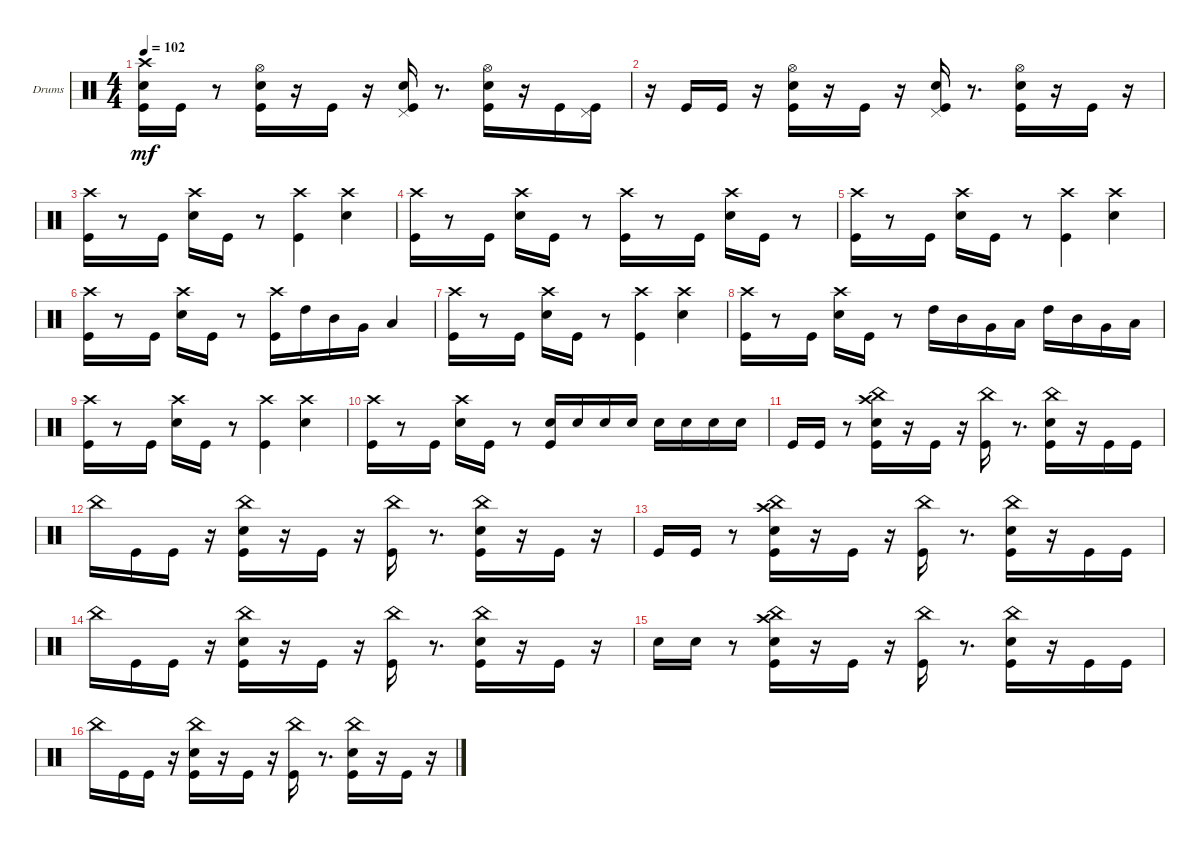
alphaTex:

\defaultSystemsLayout 4
\bracketExtendMode groupsimilarinstruments
\firstSystemTrackNameOrientation horizontal
\otherSystemsTrackNameOrientation horizontal
\track ("Drumkit" "Drums") {instrument percussion}
\staff {score}
\articulation defaults
\ts (4 4)
\tempo 102
\clef neutral
\scale
0.333333
\ks c
("Crash high (hit)" "Snare (hit) 2" "Kick (hit)").16{dy mf} "Kick (hit)".16 r.8 ("Hi-Hat (open)" "Snare (hit) 2" "Kick (hit)").16 r.16 "Kick (hit)".16 r.16 ("Pedal Hi-Hat (hit)" "Snare (hit) 2" "Kick (hit)").16 r.8{d} ("Hi-Hat (open)" "Snare (hit) 2" "Kick (hit)").16 r.16 "Kick (hit)".16 ("Pedal Hi-Hat (hit)" "Kick (hit)").16 |
\scale
0.333333 r.16 "Kick (hit)".16 "Kick (hit)".16 r.16 ("Hi-Hat (open)" "Snare (hit) 2" "Kick (hit)").16 r.16 "Kick (hit)".16 r.16 ("Pedal Hi-Hat (hit)" "Snare (hit) 2" "Kick (hit)").16 r.8{d} ("Hi-Hat (open)" "Snare (hit) 2" "Kick (hit)").16 r.16 "Kick (hit)".16 r.16 |
\scale
0.333333 ("Crash high (hit)" "Kick (hit)").16 r.8 "Kick (hit)".16 ("Crash high (hit)" "Snare (hit) 2").16 "Kick (hit)".16 r.8 ("Crash high (hit)" "Kick (hit)").4 ("Crash high (hit)" "Snare (hit) 2").4 |
\scale
0.333333 ("Crash high (hit)" "Kick (hit)").16 r.8 "Kick (hit)".16 ("Crash high (hit)" "Snare (hit) 2").16 "Kick (hit)".16 r.8 ("Crash high (hit)" "Kick (hit)").16 r.8 "Kick (hit)".16 ("Crash high (hit)" "Snare (hit) 2").16 "Kick (hit)".16 r.8 |
\scale
0.333333 ("Crash high (hit)" "Kick (hit)").16 r.8 "Kick (hit)".16 ("Crash high (hit)" "Snare (hit) 2").16 "Kick (hit)".16 r.8 ("Crash high (hit)" "Kick (hit)").4 ("Crash high (hit)" "Snare (hit) 2").4 |
\scale
0.333333 ("Crash high (hit)" "Kick (hit)").16 r.8 "Kick (hit)".16 ("Crash high (hit)" "Snare (hit) 2").16 "Kick (hit)".16 r.8 ("Crash high (hit)" "Kick (hit)").16 "High Tom (hit)".16 "Mid Tom (hit)".16 "Very Low Tom (hit)".16 "Low Tom (hit)".4 |
\scale
0.333333 ("Crash high (hit)" "Kick (hit)").16 r.8 "Kick (hit)".16 ("Crash high (hit)" "Snare (hit) 2").16 "Kick (hit)".16 r.8 ("Crash high (hit)" "Kick (hit)").4 ("Crash high (hit)" "Snare (hit) 2").4 |
\scale
0.333333 ("Crash high (hit)" "Kick (hit)").16 r.8 "Kick (hit)".16 ("Crash high (hit)" "Snare (hit) 2").16 "Kick (hit)".16 r.8 "High Tom (hit)".16 "Mid Tom (hit)".16 "Very Low Tom (hit)".16 "Low Tom (hit)".16 "High Tom (hit)".16 "Mid Tom (hit)".16 "Very Low Tom (hit)".16 "Low Tom (hit)".16 |
\scale
0.333333 ("Crash high (hit)" "Kick (hit)").16 r.8 "Kick (hit)".16 ("Crash high (hit)" "Snare (hit) 2").16 "Kick (hit)".16 r.8 ("Crash high (hit)" "Kick (hit)").4 ("Crash high (hit)" "Snare (hit) 2").4 |
\scale
0.333333 ("Crash high (hit)" "Kick (hit)").16 r.8 "Kick (hit)".16 ("Crash high (hit)" "Snare (hit) 2").16 "Kick (hit)".16 r.8 ("Snare (hit) 2" "Kick (hit)").16 "Snare (hit) 2".16 "Snare (hit) 2".16 "Snare (hit) 2".16 "Snare (hit) 2".16 "Snare (hit) 2".16 "Snare (hit) 2".16 "Snare (hit) 2".16 |
\scale
0.333333 "Kick (hit)".16 "Kick (hit)".16 r.8 ("China (hit)" "Crash high (hit)" "Snare (hit) 2" "Kick (hit)").16 r.16 "Kick (hit)".16 r.16 ("China (hit)" "Kick (hit)").16 r.8{d} ("China (hit)" "Snare (hit) 2" "Kick (hit)").16 r.16 "Kick (hit)".16 "Kick (hit)".16 |
\scale
0.333333 "China (hit)".16 "Kick (hit)".16 "Kick (hit)".16 r.16 ("China (hit)" "Snare (hit) 2" "Kick (hit)").16 r.16 "Kick (hit)".16 r.16 ("China (hit)" "Kick (hit)").16 r.8{d} ("China (hit)" "Snare (hit) 2" "Kick (hit)").16 r.16 "Kick (hit)".16 r.16 |
\scale
0.333333 "Kick (hit)".16 "Kick (hit)".16 r.8 ("China (hit)" "Crash high (hit)" "Snare (hit) 2" "Kick (hit)").16 r.16 "Kick (hit)".16 r.16 ("China (hit)" "Kick (hit)").16 r.8{d} ("China (hit)" "Snare (hit) 2" "Kick (hit)").16 r.16 "Kick (hit)".16 "Kick (hit)".16 |
\scale
0.333333 "China (hit)".16 "Kick (hit)".16 "Kick (hit)".16 r.16 ("China (hit)" "Snare (hit) 2" "Kick (hit)").16 r.16 "Kick (hit)".16 r.16 ("China (hit)" "Kick (hit)").16 r.8{d} ("China (hit)" "Snare (hit) 2" "Kick (hit)").16 r.16 "Kick (hit)".16 r.16 |
\scale
0.333333 "Snare (hit) 2".16 "Snare (hit) 2".16 r.8 ("China (hit)" "Crash high (hit)" "Snare (hit) 2" "Kick (hit)").16 r.16 "Kick (hit)".16 r.16 ("China (hit)" "Kick (hit)").16 r.8{d} ("China (hit)" "Snare (hit) 2" "Kick (hit)").16 r.16 "Kick (hit)".16 "Kick (hit)".16 |
\scale
0.333333 "China (hit)".16 "Kick (hit)".16 "Kick (hit)".16 r.16 ("China (hit)" "Snare (hit) 2" "Kick (hit)").16 r.16 "Kick (hit)".16 r.16 ("China (hit)" "Kick (hit)").16 r.8{d} ("China (hit)" "Snare (hit) 2" "Kick (hit)").16 r.16 "Kick (hit)".16 r.16
